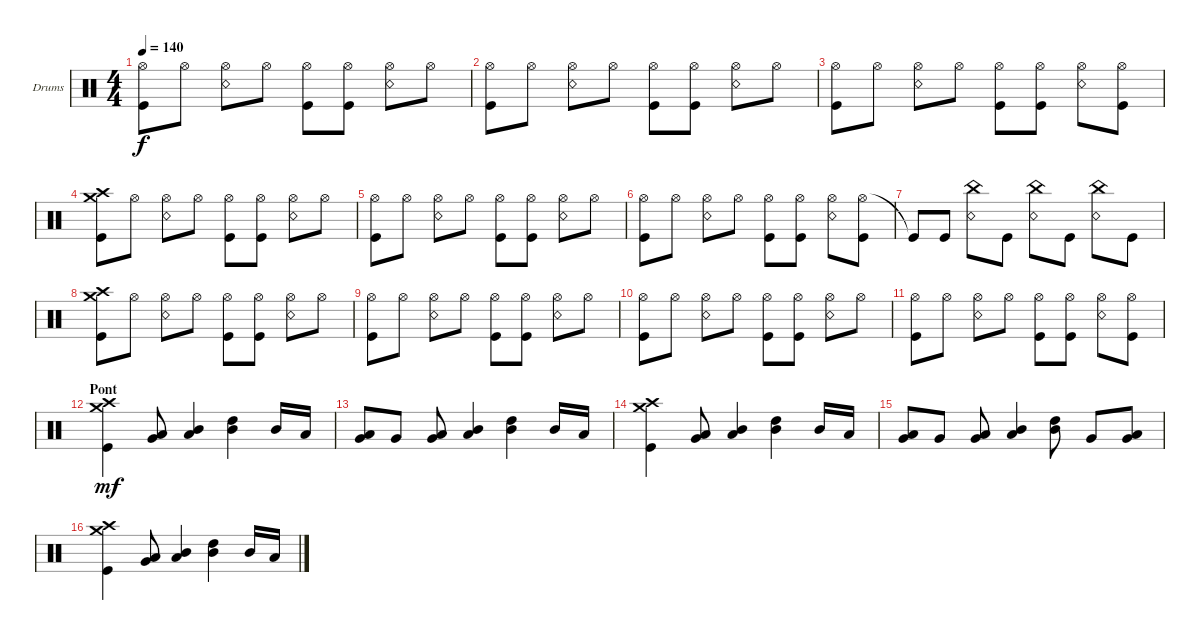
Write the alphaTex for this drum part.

\bracketExtendMode groupsimilarinstruments
\firstSystemTrackNameOrientation horizontal
\otherSystemsTrackNameOrientation horizontal
\track ("Drumkit" "Drums") {instrument percussion}
\staff {score}
\articulation defaults
\ts (4 4)
\tempo 140
\clef neutral
\ks c
("Kick (hit)" "Hi-Hat (open)").8{dy f} "Hi-Hat (open)".8 ("Hi-Hat (open)" "Snare (rim shot)").8 "Hi-Hat (open)".8 ("Hi-Hat (open)" "Kick (hit)").8 ("Hi-Hat (open)" "Kick (hit)").8 ("Snare (rim shot)" "Hi-Hat (open)").8 "Hi-Hat (open)".8 |
("Kick (hit)" "Hi-Hat (open)").8 "Hi-Hat (open)".8 ("Hi-Hat (open)" "Snare (rim shot)").8 "Hi-Hat (open)".8 ("Hi-Hat (open)" "Kick (hit)").8 ("Hi-Hat (open)" "Kick (hit)").8 ("Snare (rim shot)" "Hi-Hat (open)").8 "Hi-Hat (open)".8 |
("Kick (hit)" "Hi-Hat (open)").8 "Hi-Hat (open)".8 ("Hi-Hat (open)" "Snare (rim shot)").8 "Hi-Hat (open)".8 ("Hi-Hat (open)" "Kick (hit)").8 ("Hi-Hat (open)" "Kick (hit)").8 ("Snare (rim shot)" "Hi-Hat (open)").8 ("Hi-Hat (open)" "Kick (hit)").8 |
("Kick (hit)" "Crash medium (hit)" "Crash high (hit)").8 "Hi-Hat (open)".8 ("Hi-Hat (open)" "Snare (rim shot)").8 "Hi-Hat (open)".8 ("Hi-Hat (open)" "Kick (hit)").8 ("Hi-Hat (open)" "Kick (hit)").8 ("Snare (rim shot)" "Hi-Hat (open)").8 "Hi-Hat (open)".8 |
("Kick (hit)" "Hi-Hat (open)").8 "Hi-Hat (open)".8 ("Hi-Hat (open)" "Snare (rim shot)").8 "Hi-Hat (open)".8 ("Hi-Hat (open)" "Kick (hit)").8 ("Hi-Hat (open)" "Kick (hit)").8 ("Snare (rim shot)" "Hi-Hat (open)").8 "Hi-Hat (open)".8 |
("Kick (hit)" "Hi-Hat (open)").8 "Hi-Hat (open)".8 ("Hi-Hat (open)" "Snare (rim shot)").8 "Hi-Hat (open)".8 ("Hi-Hat (open)" "Kick (hit)").8 ("Hi-Hat (open)" "Kick (hit)").8 ("Snare (rim shot)" "Hi-Hat (open)").8 ("Hi-Hat (open)" "Kick (hit)").8 |
"Kick (hit)"{t}.8 "Kick (hit)".8 ("Snare (rim shot)" "China (hit)").8 "Kick (hit)".8 ("China (hit)" "Snare (rim shot)").8 "Kick (hit)".8 ("Snare (rim shot)" "China (hit)").8 "Kick (hit)".8 |
("Kick (hit)" "Crash medium (hit)" "Crash high (hit)").8 "Hi-Hat (open)".8 ("Hi-Hat (open)" "Snare (rim shot)").8 "Hi-Hat (open)".8 ("Hi-Hat (open)" "Kick (hit)").8 ("Hi-Hat (open)" "Kick (hit)").8 ("Snare (rim shot)" "Hi-Hat (open)").8 "Hi-Hat (open)".8 |
("Kick (hit)" "Hi-Hat (open)").8 "Hi-Hat (open)".8 ("Hi-Hat (open)" "Snare (rim shot)").8 "Hi-Hat (open)".8 ("Hi-Hat (open)" "Kick (hit)").8 ("Hi-Hat (open)" "Kick (hit)").8 ("Snare (rim shot)" "Hi-Hat (open)").8 "Hi-Hat (open)".8 |
("Kick (hit)" "Hi-Hat (open)").8 "Hi-Hat (open)".8 ("Hi-Hat (open)" "Snare (rim shot)").8 "Hi-Hat (open)".8 ("Hi-Hat (open)" "Kick (hit)").8 ("Hi-Hat (open)" "Kick (hit)").8 ("Snare (rim shot)" "Hi-Hat (open)").8 "Hi-Hat (open)".8 |
("Kick (hit)" "Hi-Hat (open)").8 "Hi-Hat (open)".8 ("Hi-Hat (open)" "Snare (rim shot)").8 "Hi-Hat (open)".8 ("Hi-Hat (open)" "Kick (hit)").8 ("Hi-Hat (open)" "Kick (hit)").8 ("Snare (rim shot)" "Hi-Hat (open)").8 ("Hi-Hat (open)" "Kick (hit)").8 |
\section ("" "Pont")
("Crash medium (hit)" "Crash high (hit)" "Kick (hit)").4{dy mf} ("Low Tom (hit)" "Very Low Tom (hit)").8 ("Low Tom (hit)" "Mid Tom (hit)").4 ("Mid Tom (hit)" "High Tom (hit)").4 "Mid Tom (hit)".16 "Low Tom (hit)".16 |
("Low Tom (hit)" "Very Low Tom (hit)").8 "Very Low Tom (hit)".8 ("Low Tom (hit)" "Very Low Tom (hit)").8 ("Mid Tom (hit)" "Low Tom (hit)").4 ("Mid Tom (hit)" "High Tom (hit)").4 "Mid Tom (hit)".16 "Low Tom (hit)".16 |
("Crash medium (hit)" "Crash high (hit)" "Kick (hit)").4 ("Low Tom (hit)" "Very Low Tom (hit)").8 ("Low Tom (hit)" "Mid Tom (hit)").4 ("Mid Tom (hit)" "High Tom (hit)").4 "Mid Tom (hit)".16 "Low Tom (hit)".16 |
("Low Tom (hit)" "Very Low Tom (hit)").8 "Very Low Tom (hit)".8 ("Low Tom (hit)" "Very Low Tom (hit)").8 ("Mid Tom (hit)" "Low Tom (hit)").4 ("Mid Tom (hit)" "High Tom (hit)").8 "Very Low Tom (hit)".8 ("Low Tom (hit)" "Very Low Tom (hit)").8 |
("Crash medium (hit)" "Crash high (hit)" "Kick (hit)").4 ("Low Tom (hit)" "Very Low Tom (hit)").8 ("Low Tom (hit)" "Mid Tom (hit)").4 ("Mid Tom (hit)" "High Tom (hit)").4 "Mid Tom (hit)".16 "Low Tom (hit)".16
